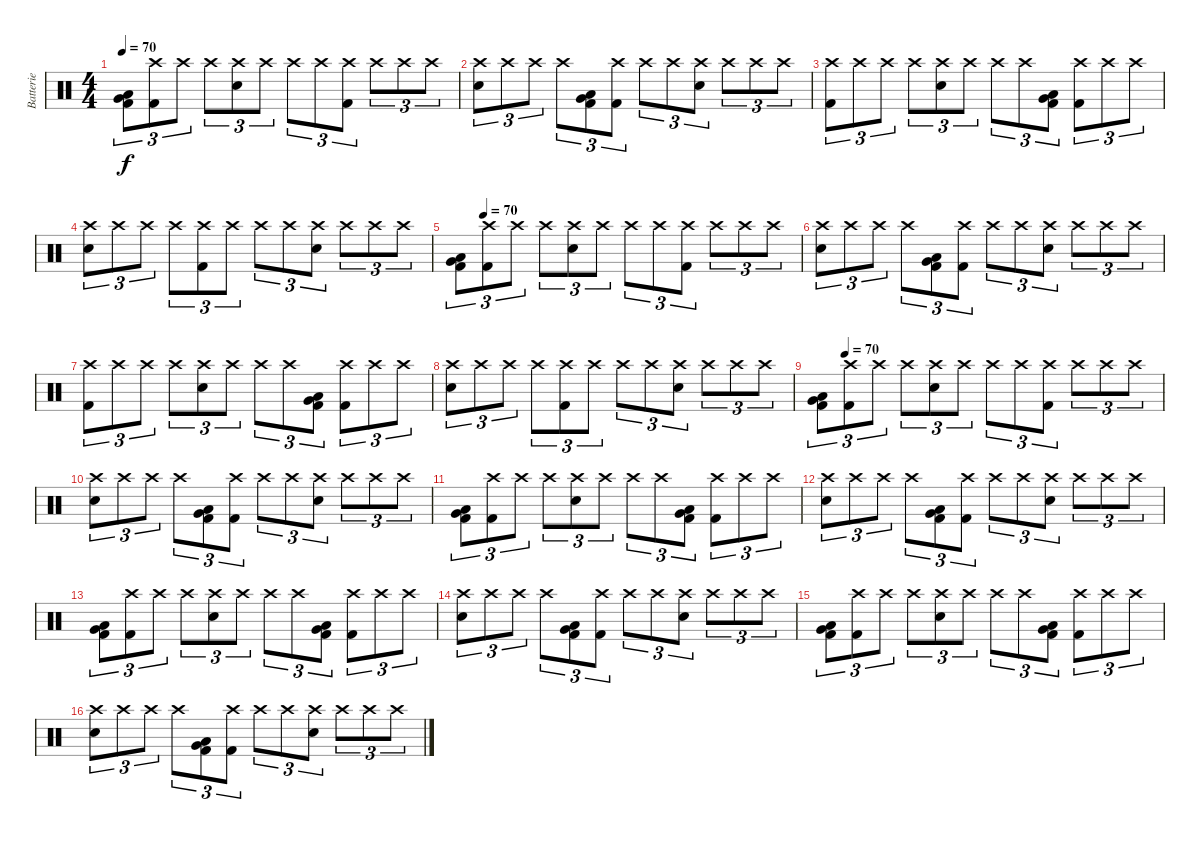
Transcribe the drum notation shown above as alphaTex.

\track ("Batterie" "Batterie") {instrument percussion}
\staff {score}
\articulation defaults
\ts (4 4)
\tempo 70
\clef neutral
\ks c
("Kick (hit) 2" "Very Low Tom (hit)" "Low Tom (hit)").8{tu (3 2) dy f} ("Crash high (hit)" "Kick (hit) 2").8{tu (3 2)} "Crash high (hit)".8{tu (3 2)} "Crash high (hit)".8{tu (3 2)} ("Crash high (hit)" "Electric Snare (hit)").8{tu (3 2)} "Crash high (hit)".8{tu (3 2)} "Crash high (hit)".8{tu (3 2)} "Crash high (hit)".8{tu (3 2)} ("Crash high (hit)" "Kick (hit) 2").8{tu (3 2)} "Crash high (hit)".8{tu (3 2)} "Crash high (hit)".8{tu (3 2)} "Crash high (hit)".8{tu (3 2)} |
("Crash high (hit)" "Electric Snare (hit)").8{tu (3 2)} "Crash high (hit)".8{tu (3 2)} "Crash high (hit)".8{tu (3 2)} "Crash high (hit)".8{tu (3 2)} ("Kick (hit) 2" "Very Low Tom (hit)" "Low Tom (hit)").8{tu (3 2)} ("Crash high (hit)" "Kick (hit) 2").8{tu (3 2)} "Crash high (hit)".8{tu (3 2)} "Crash high (hit)".8{tu (3 2)} ("Crash high (hit)" "Electric Snare (hit)").8{tu (3 2)} "Crash high (hit)".8{tu (3 2)} "Crash high (hit)".8{tu (3 2)} "Crash high (hit)".8{tu (3 2)} |
("Crash high (hit)" "Kick (hit) 2").8{tu (3 2)} "Crash high (hit)".8{tu (3 2)} "Crash high (hit)".8{tu (3 2)} "Crash high (hit)".8{tu (3 2)} ("Crash high (hit)" "Electric Snare (hit)").8{tu (3 2)} "Crash high (hit)".8{tu (3 2)} "Crash high (hit)".8{tu (3 2)} "Crash high (hit)".8{tu (3 2)} ("Kick (hit) 2" "Low Tom (hit)" "Very Low Tom (hit)").8{tu (3 2)} ("Crash high (hit)" "Kick (hit) 2").8{tu (3 2)} "Crash high (hit)".8{tu (3 2)} "Crash high (hit)".8{tu (3 2)} |
("Crash high (hit)" "Electric Snare (hit)").8{tu (3 2)} "Crash high (hit)".8{tu (3 2)} "Crash high (hit)".8{tu (3 2)} "Crash high (hit)".8{tu (3 2)} ("Crash high (hit)" "Kick (hit) 2").8{tu (3 2)} "Crash high (hit)".8{tu (3 2)} "Crash high (hit)".8{tu (3 2)} "Crash high (hit)".8{tu (3 2)} ("Crash high (hit)" "Electric Snare (hit)").8{tu (3 2)} "Crash high (hit)".8{tu (3 2)} "Crash high (hit)".8{tu (3 2)} "Crash high (hit)".8{tu (3 2)} |
\tempo (70 0.08333333333333333)
("Kick (hit) 2" "Very Low Tom (hit)" "Low Tom (hit)").8{tu (3 2)} ("Crash high (hit)" "Kick (hit) 2").8{tu (3 2)} "Crash high (hit)".8{tu (3 2)} "Crash high (hit)".8{tu (3 2)} ("Crash high (hit)" "Electric Snare (hit)").8{tu (3 2)} "Crash high (hit)".8{tu (3 2)} "Crash high (hit)".8{tu (3 2)} "Crash high (hit)".8{tu (3 2)} ("Crash high (hit)" "Kick (hit) 2").8{tu (3 2)} "Crash high (hit)".8{tu (3 2)} "Crash high (hit)".8{tu (3 2)} "Crash high (hit)".8{tu (3 2)} |
("Crash high (hit)" "Electric Snare (hit)").8{tu (3 2)} "Crash high (hit)".8{tu (3 2)} "Crash high (hit)".8{tu (3 2)} "Crash high (hit)".8{tu (3 2)} ("Kick (hit) 2" "Very Low Tom (hit)" "Low Tom (hit)").8{tu (3 2)} ("Crash high (hit)" "Kick (hit) 2").8{tu (3 2)} "Crash high (hit)".8{tu (3 2)} "Crash high (hit)".8{tu (3 2)} ("Crash high (hit)" "Electric Snare (hit)").8{tu (3 2)} "Crash high (hit)".8{tu (3 2)} "Crash high (hit)".8{tu (3 2)} "Crash high (hit)".8{tu (3 2)} |
("Crash high (hit)" "Kick (hit) 2").8{tu (3 2)} "Crash high (hit)".8{tu (3 2)} "Crash high (hit)".8{tu (3 2)} "Crash high (hit)".8{tu (3 2)} ("Crash high (hit)" "Electric Snare (hit)").8{tu (3 2)} "Crash high (hit)".8{tu (3 2)} "Crash high (hit)".8{tu (3 2)} "Crash high (hit)".8{tu (3 2)} ("Kick (hit) 2" "Low Tom (hit)" "Very Low Tom (hit)").8{tu (3 2)} ("Crash high (hit)" "Kick (hit) 2").8{tu (3 2)} "Crash high (hit)".8{tu (3 2)} "Crash high (hit)".8{tu (3 2)} |
("Crash high (hit)" "Electric Snare (hit)").8{tu (3 2)} "Crash high (hit)".8{tu (3 2)} "Crash high (hit)".8{tu (3 2)} "Crash high (hit)".8{tu (3 2)} ("Crash high (hit)" "Kick (hit) 2").8{tu (3 2)} "Crash high (hit)".8{tu (3 2)} "Crash high (hit)".8{tu (3 2)} "Crash high (hit)".8{tu (3 2)} ("Crash high (hit)" "Electric Snare (hit)").8{tu (3 2)} "Crash high (hit)".8{tu (3 2)} "Crash high (hit)".8{tu (3 2)} "Crash high (hit)".8{tu (3 2)} |
\tempo (70 0.08333333333333333)
("Kick (hit) 2" "Very Low Tom (hit)" "Low Tom (hit)").8{tu (3 2)} ("Crash high (hit)" "Kick (hit) 2").8{tu (3 2)} "Crash high (hit)".8{tu (3 2)} "Crash high (hit)".8{tu (3 2)} ("Crash high (hit)" "Electric Snare (hit)").8{tu (3 2)} "Crash high (hit)".8{tu (3 2)} "Crash high (hit)".8{tu (3 2)} "Crash high (hit)".8{tu (3 2)} ("Crash high (hit)" "Kick (hit) 2").8{tu (3 2)} "Crash high (hit)".8{tu (3 2)} "Crash high (hit)".8{tu (3 2)} "Crash high (hit)".8{tu (3 2)} |
("Crash high (hit)" "Electric Snare (hit)").8{tu (3 2)} "Crash high (hit)".8{tu (3 2)} "Crash high (hit)".8{tu (3 2)} "Crash high (hit)".8{tu (3 2)} ("Kick (hit) 2" "Very Low Tom (hit)" "Low Tom (hit)").8{tu (3 2)} ("Crash high (hit)" "Kick (hit) 2").8{tu (3 2)} "Crash high (hit)".8{tu (3 2)} "Crash high (hit)".8{tu (3 2)} ("Crash high (hit)" "Electric Snare (hit)").8{tu (3 2)} "Crash high (hit)".8{tu (3 2)} "Crash high (hit)".8{tu (3 2)} "Crash high (hit)".8{tu (3 2)} |
("Kick (hit) 2" "Very Low Tom (hit)" "Low Tom (hit)").8{tu (3 2)} ("Crash high (hit)" "Kick (hit) 2").8{tu (3 2)} "Crash high (hit)".8{tu (3 2)} "Crash high (hit)".8{tu (3 2)} ("Crash high (hit)" "Electric Snare (hit)").8{tu (3 2)} "Crash high (hit)".8{tu (3 2)} "Crash high (hit)".8{tu (3 2)} "Crash high (hit)".8{tu (3 2)} ("Low Tom (hit)" "Kick (hit) 2" "Very Low Tom (hit)").8{tu (3 2)} ("Crash high (hit)" "Kick (hit) 2").8{tu (3 2)} "Crash high (hit)".8{tu (3 2)} "Crash high (hit)".8{tu (3 2)} |
("Crash high (hit)" "Electric Snare (hit)").8{tu (3 2)} "Crash high (hit)".8{tu (3 2)} "Crash high (hit)".8{tu (3 2)} "Crash high (hit)".8{tu (3 2)} ("Low Tom (hit)" "Very Low Tom (hit)" "Kick (hit) 2").8{tu (3 2)} ("Crash high (hit)" "Kick (hit) 2").8{tu (3 2)} "Crash high (hit)".8{tu (3 2)} "Crash high (hit)".8{tu (3 2)} ("Crash high (hit)" "Electric Snare (hit)").8{tu (3 2)} "Crash high (hit)".8{tu (3 2)} "Crash high (hit)".8{tu (3 2)} "Crash high (hit)".8{tu (3 2)} |
("Kick (hit) 2" "Very Low Tom (hit)" "Low Tom (hit)").8{tu (3 2)} ("Crash high (hit)" "Kick (hit) 2").8{tu (3 2)} "Crash high (hit)".8{tu (3 2)} "Crash high (hit)".8{tu (3 2)} ("Crash high (hit)" "Electric Snare (hit)").8{tu (3 2)} "Crash high (hit)".8{tu (3 2)} "Crash high (hit)".8{tu (3 2)} "Crash high (hit)".8{tu (3 2)} ("Low Tom (hit)" "Kick (hit) 2" "Very Low Tom (hit)").8{tu (3 2)} ("Crash high (hit)" "Kick (hit) 2").8{tu (3 2)} "Crash high (hit)".8{tu (3 2)} "Crash high (hit)".8{tu (3 2)} |
("Crash high (hit)" "Electric Snare (hit)").8{tu (3 2)} "Crash high (hit)".8{tu (3 2)} "Crash high (hit)".8{tu (3 2)} "Crash high (hit)".8{tu (3 2)} ("Low Tom (hit)" "Very Low Tom (hit)" "Kick (hit) 2").8{tu (3 2)} ("Crash high (hit)" "Kick (hit) 2").8{tu (3 2)} "Crash high (hit)".8{tu (3 2)} "Crash high (hit)".8{tu (3 2)} ("Crash high (hit)" "Electric Snare (hit)").8{tu (3 2)} "Crash high (hit)".8{tu (3 2)} "Crash high (hit)".8{tu (3 2)} "Crash high (hit)".8{tu (3 2)} |
("Kick (hit) 2" "Very Low Tom (hit)" "Low Tom (hit)").8{tu (3 2)} ("Crash high (hit)" "Kick (hit) 2").8{tu (3 2)} "Crash high (hit)".8{tu (3 2)} "Crash high (hit)".8{tu (3 2)} ("Crash high (hit)" "Electric Snare (hit)").8{tu (3 2)} "Crash high (hit)".8{tu (3 2)} "Crash high (hit)".8{tu (3 2)} "Crash high (hit)".8{tu (3 2)} ("Low Tom (hit)" "Kick (hit) 2" "Very Low Tom (hit)").8{tu (3 2)} ("Crash high (hit)" "Kick (hit) 2").8{tu (3 2)} "Crash high (hit)".8{tu (3 2)} "Crash high (hit)".8{tu (3 2)} |
("Crash high (hit)" "Electric Snare (hit)").8{tu (3 2)} "Crash high (hit)".8{tu (3 2)} "Crash high (hit)".8{tu (3 2)} "Crash high (hit)".8{tu (3 2)} ("Low Tom (hit)" "Very Low Tom (hit)" "Kick (hit) 2").8{tu (3 2)} ("Crash high (hit)" "Kick (hit) 2").8{tu (3 2)} "Crash high (hit)".8{tu (3 2)} "Crash high (hit)".8{tu (3 2)} ("Crash high (hit)" "Electric Snare (hit)").8{tu (3 2)} "Crash high (hit)".8{tu (3 2)} "Crash high (hit)".8{tu (3 2)} "Crash high (hit)".8{tu (3 2)}
